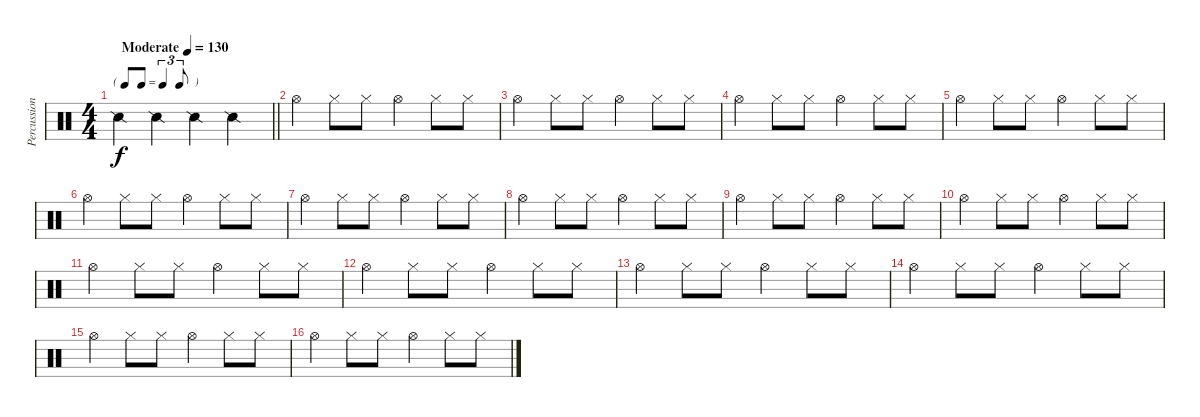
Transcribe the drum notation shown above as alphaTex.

\track ("Percussions" "Percussion") {instrument percussion}
\staff {score}
\articulation defaults
\ts (4 4)
\tf triplet8th
\tempo (130 "Moderate")
\clef neutral
\barLineRight lightlight
\ks c "Snare (side stick) 2".4{dy f} "Snare (side stick) 2".4 "Snare (side stick) 2".4 "Snare (side stick) 2".4
|
"Hi-Hat (open)".4 "Hi-Hat (closed)".8 "Hi-Hat (closed)".8 "Hi-Hat (open)".4 "Hi-Hat (closed)".8 "Hi-Hat (closed)".8 |
"Hi-Hat (open)".4 "Hi-Hat (closed)".8 "Hi-Hat (closed)".8 "Hi-Hat (open)".4 "Hi-Hat (closed)".8 "Hi-Hat (closed)".8 |
"Hi-Hat (open)".4 "Hi-Hat (closed)".8 "Hi-Hat (closed)".8 "Hi-Hat (open)".4 "Hi-Hat (closed)".8 "Hi-Hat (closed)".8 |
"Hi-Hat (open)".4 "Hi-Hat (closed)".8 "Hi-Hat (closed)".8 "Hi-Hat (open)".4 "Hi-Hat (closed)".8 "Hi-Hat (closed)".8 |
"Hi-Hat (open)".4 "Hi-Hat (closed)".8 "Hi-Hat (closed)".8 "Hi-Hat (open)".4 "Hi-Hat (closed)".8 "Hi-Hat (closed)".8 |
"Hi-Hat (open)".4 "Hi-Hat (closed)".8 "Hi-Hat (closed)".8 "Hi-Hat (open)".4 "Hi-Hat (closed)".8 "Hi-Hat (closed)".8 |
"Hi-Hat (open)".4 "Hi-Hat (closed)".8 "Hi-Hat (closed)".8 "Hi-Hat (open)".4 "Hi-Hat (closed)".8 "Hi-Hat (closed)".8 |
"Hi-Hat (open)".4 "Hi-Hat (closed)".8 "Hi-Hat (closed)".8 "Hi-Hat (open)".4 "Hi-Hat (closed)".8 "Hi-Hat (closed)".8 |
"Hi-Hat (open)".4 "Hi-Hat (closed)".8 "Hi-Hat (closed)".8 "Hi-Hat (open)".4 "Hi-Hat (closed)".8 "Hi-Hat (closed)".8 |
"Hi-Hat (open)".4 "Hi-Hat (closed)".8 "Hi-Hat (closed)".8 "Hi-Hat (open)".4 "Hi-Hat (closed)".8 "Hi-Hat (closed)".8 |
"Hi-Hat (open)".4 "Hi-Hat (closed)".8 "Hi-Hat (closed)".8 "Hi-Hat (open)".4 "Hi-Hat (closed)".8 "Hi-Hat (closed)".8 |
"Hi-Hat (open)".4 "Hi-Hat (closed)".8 "Hi-Hat (closed)".8 "Hi-Hat (open)".4 "Hi-Hat (closed)".8 "Hi-Hat (closed)".8 |
"Hi-Hat (open)".4 "Hi-Hat (closed)".8 "Hi-Hat (closed)".8 "Hi-Hat (open)".4 "Hi-Hat (closed)".8 "Hi-Hat (closed)".8 |
"Hi-Hat (open)".4 "Hi-Hat (closed)".8 "Hi-Hat (closed)".8 "Hi-Hat (open)".4 "Hi-Hat (closed)".8 "Hi-Hat (closed)".8 |
"Hi-Hat (open)".4 "Hi-Hat (closed)".8 "Hi-Hat (closed)".8 "Hi-Hat (open)".4 "Hi-Hat (closed)".8 "Hi-Hat (closed)".8
